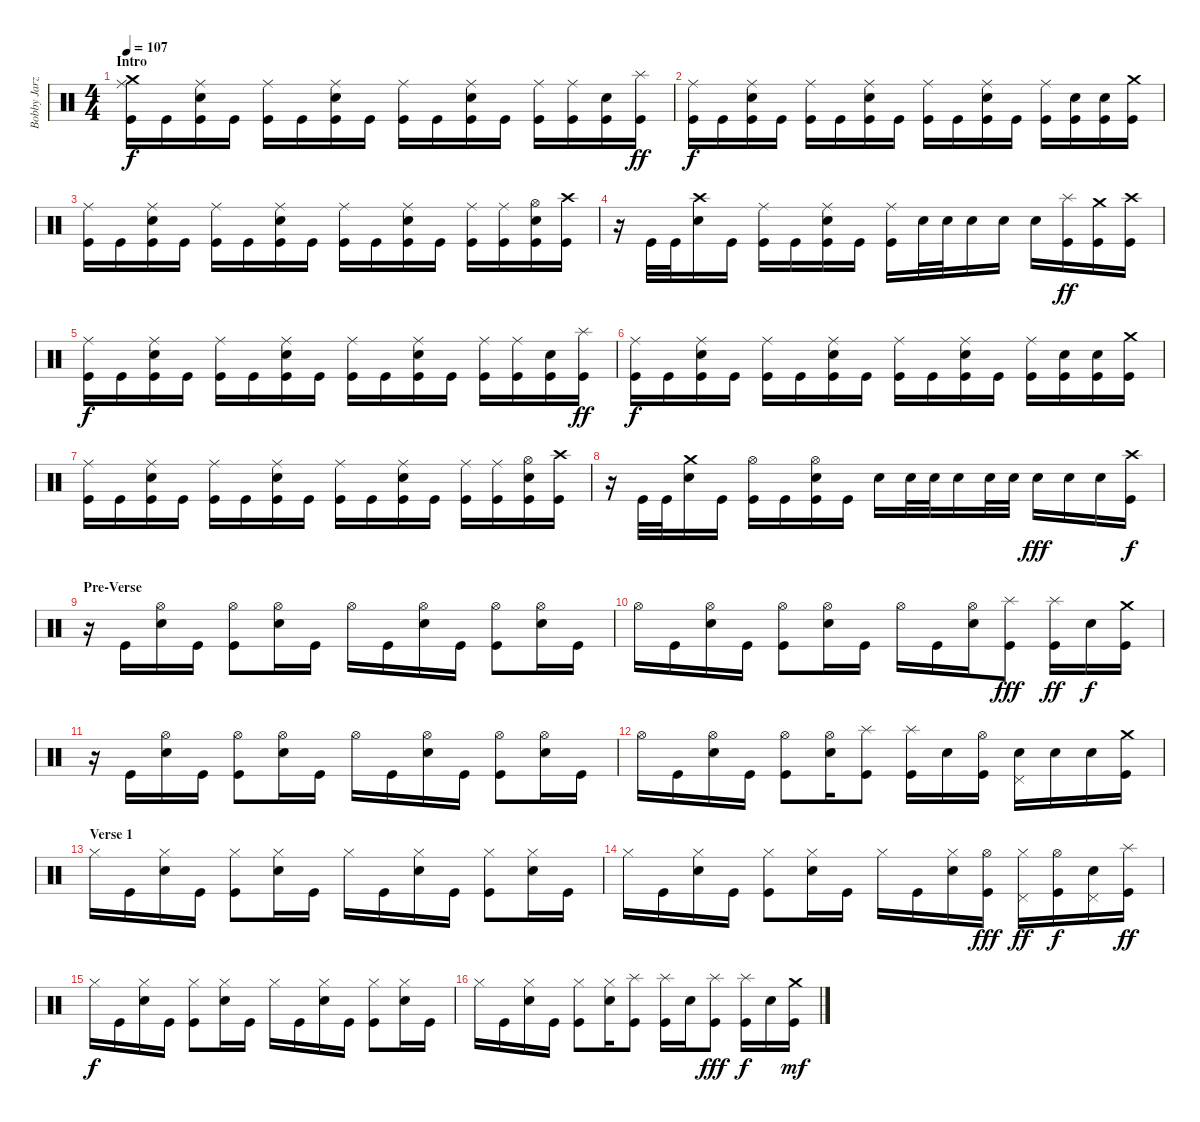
\track ("Bobby Jarzombek" "Bobby Jarz") {instrument percussion}
\staff {score}
\articulation defaults
\ts (4 4)
\section ("" "Intro")
\tempo 107
\clef neutral
\ks c
("Kick (hit)" "Ride (middle)" "Crash medium (hit)").16{dy f} "Kick (hit)".16 ("Kick (hit)" "Ride (middle)" "Electric Snare (hit)").16 "Kick (hit)".16 ("Kick (hit)" "Ride (middle)").16 "Kick (hit)".16 ("Kick (hit)" "Ride (middle)" "Electric Snare (hit)").16 "Kick (hit)".16 ("Kick (hit)" "Ride (middle)").16 "Kick (hit)".16 ("Kick (hit)" "Ride (middle)" "Electric Snare (hit)").16 "Kick (hit)".16 ("Kick (hit)" "Ride (middle)").16 ("Kick (hit)" "Ride (middle)").16 ("Kick (hit)" "Electric Snare (hit)").16 ("Kick (hit)" "Splash (hit)").16{dy ff} |
("Kick (hit)" "Ride (middle)").16{dy f} "Kick (hit)".16 ("Kick (hit)" "Ride (middle)" "Electric Snare (hit)").16 "Kick (hit)".16 ("Kick (hit)" "Ride (middle)").16 "Kick (hit)".16 ("Kick (hit)" "Ride (middle)" "Electric Snare (hit)").16 "Kick (hit)".16 ("Kick (hit)" "Ride (middle)").16 "Kick (hit)".16 ("Kick (hit)" "Ride (middle)" "Electric Snare (hit)").16 "Kick (hit)".16 ("Kick (hit)" "Ride (middle)").16 ("Kick (hit)" "Electric Snare (hit)").16 ("Kick (hit)" "Electric Snare (hit)").16 ("Kick (hit)" "Crash medium (hit)").16 |
("Kick (hit)" "Ride (middle)").16 "Kick (hit)".16 ("Kick (hit)" "Ride (middle)" "Electric Snare (hit)").16 "Kick (hit)".16 ("Kick (hit)" "Ride (middle)").16 "Kick (hit)".16 ("Kick (hit)" "Ride (middle)" "Electric Snare (hit)").16 "Kick (hit)".16 ("Kick (hit)" "Ride (middle)").16 "Kick (hit)".16 ("Kick (hit)" "Ride (middle)" "Electric Snare (hit)").16 "Kick (hit)".16 ("Kick (hit)" "Ride (middle)").16 ("Kick (hit)" "Ride (middle)").16 ("Kick (hit)" "Hi-Hat (open)" "Electric Snare (hit)").16 ("Kick (hit)" "Crash high (hit)").16 |
r.16 "Kick (hit)".32 "Kick (hit)".32 ("Crash high (hit)" "Electric Snare (hit)").16 "Kick (hit)".16 ("Kick (hit)" "Ride (middle)").16 "Kick (hit)".16 ("Kick (hit)" "Ride (middle)" "Electric Snare (hit)").16 "Kick (hit)".16 ("Kick (hit)" "Ride (middle)").16 "Electric Snare (hit)".32 "Electric Snare (hit)".32 "Electric Snare (hit)".16 "Electric Snare (hit)".16 "Electric Snare (hit)".16 ("Splash (hit)" "Kick (hit)").16{dy ff} ("Crash medium (hit)" "Kick (hit)").16 ("Crash high (hit)" "Kick (hit)").16 |
("Kick (hit)" "Ride (middle)").16{dy f} "Kick (hit)".16 ("Kick (hit)" "Ride (middle)" "Electric Snare (hit)").16 "Kick (hit)".16 ("Kick (hit)" "Ride (middle)").16 "Kick (hit)".16 ("Kick (hit)" "Ride (middle)" "Electric Snare (hit)").16 "Kick (hit)".16 ("Kick (hit)" "Ride (middle)").16 "Kick (hit)".16 ("Kick (hit)" "Ride (middle)" "Electric Snare (hit)").16 "Kick (hit)".16 ("Kick (hit)" "Ride (middle)").16 ("Kick (hit)" "Ride (middle)").16 ("Kick (hit)" "Electric Snare (hit)").16 ("Kick (hit)" "Splash (hit)").16{dy ff} |
("Kick (hit)" "Ride (middle)").16{dy f} "Kick (hit)".16 ("Kick (hit)" "Ride (middle)" "Electric Snare (hit)").16 "Kick (hit)".16 ("Kick (hit)" "Ride (middle)").16 "Kick (hit)".16 ("Kick (hit)" "Ride (middle)" "Electric Snare (hit)").16 "Kick (hit)".16 ("Kick (hit)" "Ride (middle)").16 "Kick (hit)".16 ("Kick (hit)" "Ride (middle)" "Electric Snare (hit)").16 "Kick (hit)".16 ("Kick (hit)" "Ride (middle)").16 ("Kick (hit)" "Electric Snare (hit)").16 ("Kick (hit)" "Electric Snare (hit)").16 ("Kick (hit)" "Crash medium (hit)").16 |
("Kick (hit)" "Ride (middle)").16 "Kick (hit)".16 ("Kick (hit)" "Ride (middle)" "Electric Snare (hit)").16 "Kick (hit)".16 ("Kick (hit)" "Ride (middle)").16 "Kick (hit)".16 ("Kick (hit)" "Ride (middle)" "Electric Snare (hit)").16 "Kick (hit)".16 ("Kick (hit)" "Ride (middle)").16 "Kick (hit)".16 ("Kick (hit)" "Ride (middle)" "Electric Snare (hit)").16 "Kick (hit)".16 ("Kick (hit)" "Ride (middle)").16 ("Kick (hit)" "Ride (middle)").16 ("Kick (hit)" "Hi-Hat (open)" "Electric Snare (hit)").16 ("Kick (hit)" "Crash high (hit)").16 |
r.16 "Kick (hit)".32 "Kick (hit)".32 ("Crash medium (hit)" "Electric Snare (hit)").16 "Kick (hit)".16 ("Kick (hit)" "Hi-Hat (open)").16 "Kick (hit)".16 ("Kick (hit)" "Electric Snare (hit)" "Hi-Hat (open)").16 "Kick (hit)".16 "Electric Snare (hit)".16 "Electric Snare (hit)".32 "Electric Snare (hit)".32 "Electric Snare (hit)".16 "Electric Snare (hit)".32 "Electric Snare (hit)".32 "Electric Snare (hit)".16{dy fff} "Electric Snare (hit)".16 "Electric Snare (hit)".16 ("Crash high (hit)" "Kick (hit)").16{dy f} |
\section ("" "Pre-Verse")
r.16 "Kick (hit)".16 ("Hi-Hat (open)" "Electric Snare (hit)").16 "Kick (hit)".16 ("Hi-Hat (open)" "Kick (hit)").8 ("Hi-Hat (open)" "Electric Snare (hit)").16 "Kick (hit)".16 "Hi-Hat (open)".16 "Kick (hit)".16 ("Hi-Hat (open)" "Electric Snare (hit)").16 "Kick (hit)".16 ("Hi-Hat (open)" "Kick (hit)").8 ("Hi-Hat (open)" "Electric Snare (hit)").16 "Kick (hit)".16 |
"Hi-Hat (open)".16 "Kick (hit)".16 ("Hi-Hat (open)" "Electric Snare (hit)").16 "Kick (hit)".16 ("Hi-Hat (open)" "Kick (hit)").8 ("Hi-Hat (open)" "Electric Snare (hit)").16 "Kick (hit)".16 "Hi-Hat (open)".16 "Kick (hit)".16 ("Hi-Hat (open)" "Electric Snare (hit)").16 ("Splash (hit)" "Kick (hit)").8{dy fff} ("Splash (hit)" "Kick (hit)").16{dy ff} "Electric Snare (hit)".16{dy f} ("Crash medium (hit)" "Kick (hit)").16 |
r.16 "Kick (hit)".16 ("Hi-Hat (open)" "Electric Snare (hit)").16 "Kick (hit)".16 ("Hi-Hat (open)" "Kick (hit)").8 ("Hi-Hat (open)" "Electric Snare (hit)").16 "Kick (hit)".16 "Hi-Hat (open)".16 "Kick (hit)".16 ("Hi-Hat (open)" "Electric Snare (hit)").16 "Kick (hit)".16 ("Hi-Hat (open)" "Kick (hit)").8 ("Hi-Hat (open)" "Electric Snare (hit)").16 "Kick (hit)".16 |
"Hi-Hat (open)".16 "Kick (hit)".16 ("Hi-Hat (open)" "Electric Snare (hit)").16 "Kick (hit)".16 ("Hi-Hat (open)" "Kick (hit)").8 ("Hi-Hat (open)" "Electric Snare (hit)").16 ("Splash (hit)" "Kick (hit)").8 ("Splash (hit)" "Kick (hit)").16 "Electric Snare (hit)".16 ("Hi-Hat (open)" "Kick (hit)").16 ("Electric Snare (hit)" "Pedal Hi-Hat (hit)").16 "Electric Snare (hit)".16 "Electric Snare (hit)".16 ("Crash medium (hit)" "Kick (hit)").16 |
\section ("" "Verse 1")
"Hi-Hat (closed)".16 "Kick (hit)".16 ("Hi-Hat (closed)" "Electric Snare (hit)").16 "Kick (hit)".16 ("Hi-Hat (closed)" "Kick (hit)").8 ("Hi-Hat (closed)" "Electric Snare (hit)").16 "Kick (hit)".16 "Hi-Hat (closed)".16 "Kick (hit)".16 ("Hi-Hat (closed)" "Electric Snare (hit)").16 "Kick (hit)".16 ("Hi-Hat (closed)" "Kick (hit)").8 ("Hi-Hat (closed)" "Electric Snare (hit)").16 "Kick (hit)".16 |
"Hi-Hat (closed)".16 "Kick (hit)".16 ("Hi-Hat (closed)" "Electric Snare (hit)").16 "Kick (hit)".16 ("Hi-Hat (closed)" "Kick (hit)").8 ("Hi-Hat (closed)" "Electric Snare (hit)").16 "Kick (hit)".16 "Hi-Hat (closed)".16 "Kick (hit)".16 ("Hi-Hat (closed)" "Electric Snare (hit)").16 ("Hi-Hat (open)" "Kick (hit)").16{dy fff} ("Hi-Hat (closed)" "Pedal Hi-Hat (hit)").16{dy ff} ("Hi-Hat (open)" "Kick (hit)").16{dy f} ("Pedal Hi-Hat (hit)" "Electric Snare (hit)").16 ("Splash (hit)" "Kick (hit)").16{dy ff} |
"Hi-Hat (closed)".16{dy f} "Kick (hit)".16 ("Hi-Hat (closed)" "Electric Snare (hit)").16 "Kick (hit)".16 ("Hi-Hat (closed)" "Kick (hit)").8 ("Hi-Hat (closed)" "Electric Snare (hit)").16 "Kick (hit)".16 "Hi-Hat (closed)".16 "Kick (hit)".16 ("Hi-Hat (closed)" "Electric Snare (hit)").16 "Kick (hit)".16 ("Hi-Hat (closed)" "Kick (hit)").8 ("Hi-Hat (closed)" "Electric Snare (hit)").16 "Kick (hit)".16 |
"Hi-Hat (closed)".16 "Kick (hit)".16 ("Hi-Hat (closed)" "Electric Snare (hit)").16 "Kick (hit)".16 ("Hi-Hat (closed)" "Kick (hit)").8 ("Hi-Hat (closed)" "Electric Snare (hit)").16 ("Splash (hit)" "Kick (hit)").8 ("Splash (hit)" "Kick (hit)").16 "Electric Snare (hit)".16 ("Splash (hit)" "Kick (hit)").8{dy fff} ("Splash (hit)" "Kick (hit)").16{dy f} "Electric Snare (hit)".16 ("Crash medium (hit)" "Kick (hit)").16{dy mf}
